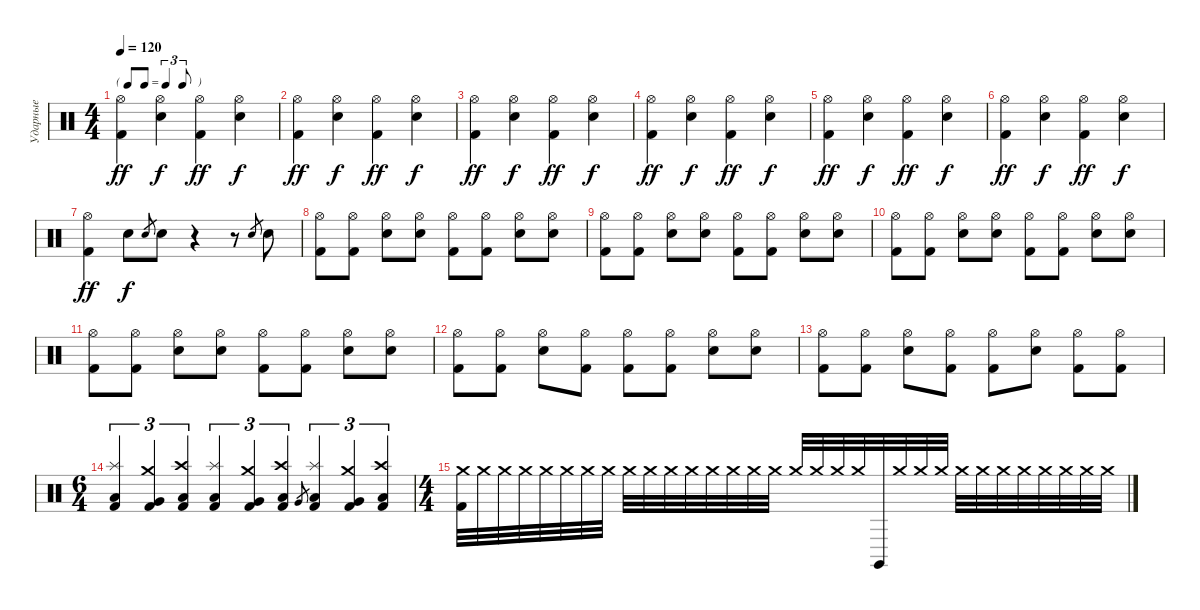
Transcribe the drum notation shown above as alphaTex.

\track ("Ударные" "Ударные") {instrument percussion}
\staff {score}
\articulation defaults
\ts (4 4)
\tf triplet8th
\tempo 120
\clef neutral
\ks c
("Hi-Hat (open)" "Kick (hit) 2").4{dy ff} ("Hi-Hat (open)" "Snare (hit) 2").4{dy f} ("Hi-Hat (open)" "Kick (hit) 2").4{dy ff} ("Hi-Hat (open)" "Snare (hit) 2").4{dy f} |
("Hi-Hat (open)" "Kick (hit) 2").4{dy ff} ("Hi-Hat (open)" "Snare (hit) 2").4{dy f} ("Hi-Hat (open)" "Kick (hit) 2").4{dy ff} ("Hi-Hat (open)" "Snare (hit) 2").4{dy f} |
("Hi-Hat (open)" "Kick (hit) 2").4{dy ff} ("Hi-Hat (open)" "Snare (hit) 2").4{dy f} ("Hi-Hat (open)" "Kick (hit) 2").4{dy ff} ("Hi-Hat (open)" "Snare (hit) 2").4{dy f} |
("Hi-Hat (open)" "Kick (hit) 2").4{dy ff} ("Hi-Hat (open)" "Snare (hit) 2").4{dy f} ("Hi-Hat (open)" "Kick (hit) 2").4{dy ff} ("Hi-Hat (open)" "Snare (hit) 2").4{dy f} |
("Hi-Hat (open)" "Kick (hit) 2").4{dy ff} ("Hi-Hat (open)" "Snare (hit) 2").4{dy f} ("Hi-Hat (open)" "Kick (hit) 2").4{dy ff} ("Hi-Hat (open)" "Snare (hit) 2").4{dy f} |
("Hi-Hat (open)" "Kick (hit) 2").4{dy ff} ("Hi-Hat (open)" "Snare (hit) 2").4{dy f} ("Hi-Hat (open)" "Kick (hit) 2").4{dy ff} ("Hi-Hat (open)" "Snare (hit) 2").4{dy f} |
("Hi-Hat (open)" "Kick (hit) 2").4{dy ff} "Snare (hit) 2".8{dy f} "Snare (hit) 2".8{gr} "Snare (hit) 2".8 r.4 r.8 "Snare (hit) 2".8{gr} "Snare (hit) 2".8 |
("Hi-Hat (open)" "Kick (hit) 2").8 ("Hi-Hat (open)" "Kick (hit) 2").8 ("Hi-Hat (open)" "Snare (hit) 2").8 ("Hi-Hat (open)" "Snare (hit) 2").8 ("Hi-Hat (open)" "Kick (hit) 2").8 ("Hi-Hat (open)" "Kick (hit) 2").8 ("Hi-Hat (open)" "Snare (hit) 2").8 ("Hi-Hat (open)" "Snare (hit) 2").8 |
("Hi-Hat (open)" "Kick (hit) 2").8 ("Hi-Hat (open)" "Kick (hit) 2").8 ("Hi-Hat (open)" "Snare (hit) 2").8 ("Hi-Hat (open)" "Snare (hit) 2").8 ("Hi-Hat (open)" "Kick (hit) 2").8 ("Hi-Hat (open)" "Kick (hit) 2").8 ("Hi-Hat (open)" "Snare (hit) 2").8 ("Hi-Hat (open)" "Snare (hit) 2").8 |
("Hi-Hat (open)" "Kick (hit) 2").8 ("Hi-Hat (open)" "Kick (hit) 2").8 ("Hi-Hat (open)" "Snare (hit) 2").8 ("Hi-Hat (open)" "Snare (hit) 2").8 ("Hi-Hat (open)" "Kick (hit) 2").8 ("Hi-Hat (open)" "Kick (hit) 2").8 ("Hi-Hat (open)" "Snare (hit) 2").8 ("Hi-Hat (open)" "Snare (hit) 2").8 |
("Hi-Hat (open)" "Kick (hit) 2").8 ("Hi-Hat (open)" "Kick (hit) 2").8 ("Hi-Hat (open)" "Snare (hit) 2").8 ("Hi-Hat (open)" "Snare (hit) 2").8 ("Hi-Hat (open)" "Kick (hit) 2").8 ("Hi-Hat (open)" "Kick (hit) 2").8 ("Hi-Hat (open)" "Snare (hit) 2").8 ("Hi-Hat (open)" "Snare (hit) 2").8 |
("Hi-Hat (open)" "Kick (hit) 2").8 ("Hi-Hat (open)" "Kick (hit) 2").8 ("Hi-Hat (open)" "Snare (hit) 2").8 ("Hi-Hat (open)" "Kick (hit) 2").8 ("Hi-Hat (open)" "Kick (hit) 2").8 ("Hi-Hat (open)" "Kick (hit) 2").8 ("Hi-Hat (open)" "Snare (hit) 2").8 ("Hi-Hat (open)" "Snare (hit) 2").8 |
("Hi-Hat (open)" "Kick (hit) 2").8 ("Hi-Hat (open)" "Kick (hit) 2").8 ("Hi-Hat (open)" "Snare (hit) 2").8 ("Hi-Hat (open)" "Kick (hit) 2").8 ("Hi-Hat (open)" "Kick (hit) 2").8 ("Hi-Hat (open)" "Snare (hit) 2").8 ("Hi-Hat (open)" "Kick (hit) 2").8 ("Hi-Hat (open)" "Kick (hit) 2").8 |
\ts (6 4)
("Splash (hit)" "Low Tom (hit)" "Kick (hit) 2").4{tu (3 2)} ("Crash medium (hit)" "Very Low Tom (hit)" "Kick (hit) 2").4{tu (3 2)} ("Crash high (hit)" "Low Floor Tom (hit)" "Kick (hit) 2").4{tu (3 2)} ("Splash (hit)" "Low Tom (hit)" "Kick (hit) 2").4{tu (3 2)} ("Crash medium (hit)" "Very Low Tom (hit)" "Kick (hit) 2").4{tu (3 2)} ("Crash high (hit)" "Low Floor Tom (hit)" "Kick (hit) 2").4{tu (3 2)} "Very Low Tom (hit)".8{gr} ("Splash (hit)" "Low Tom (hit)" "Kick (hit) 2").4{tu (3 2)} ("Crash medium (hit)" "Very Low Tom (hit)" "Kick (hit) 2").4{tu (3 2)} ("Crash high (hit)" "Low Floor Tom (hit)" "Kick (hit) 2").4{tu (3 2)} |
\ts (4 4)
("Crash medium (hit)" "Kick (hit) 2").32{volume 0} "Crash medium (hit)".32 "Crash medium (hit)".32 "Crash medium (hit)".32 "Crash medium (hit)".32 "Crash medium (hit)".32 "Crash medium (hit)".32 "Crash medium (hit)".32 "Crash medium (hit)".32 "Crash medium (hit)".32 "Crash medium (hit)".32 "Crash medium (hit)".32 "Crash medium (hit)".32 "Crash medium (hit)".32 "Crash medium (hit)".32 "Crash medium (hit)".32 "Crash medium (hit)".32 "Crash medium (hit)".32 "Crash medium (hit)".32 "Crash medium (hit)".32 "Claves (hit)".32 "Crash medium (hit)".32 "Crash medium (hit)".32 "Crash medium (hit)".32 "Crash medium (hit)".32 "Crash medium (hit)".32 "Crash medium (hit)".32 "Crash medium (hit)".32 "Crash medium (hit)".32 "Crash medium (hit)".32 "Crash medium (hit)".32 "Crash medium (hit)".32
